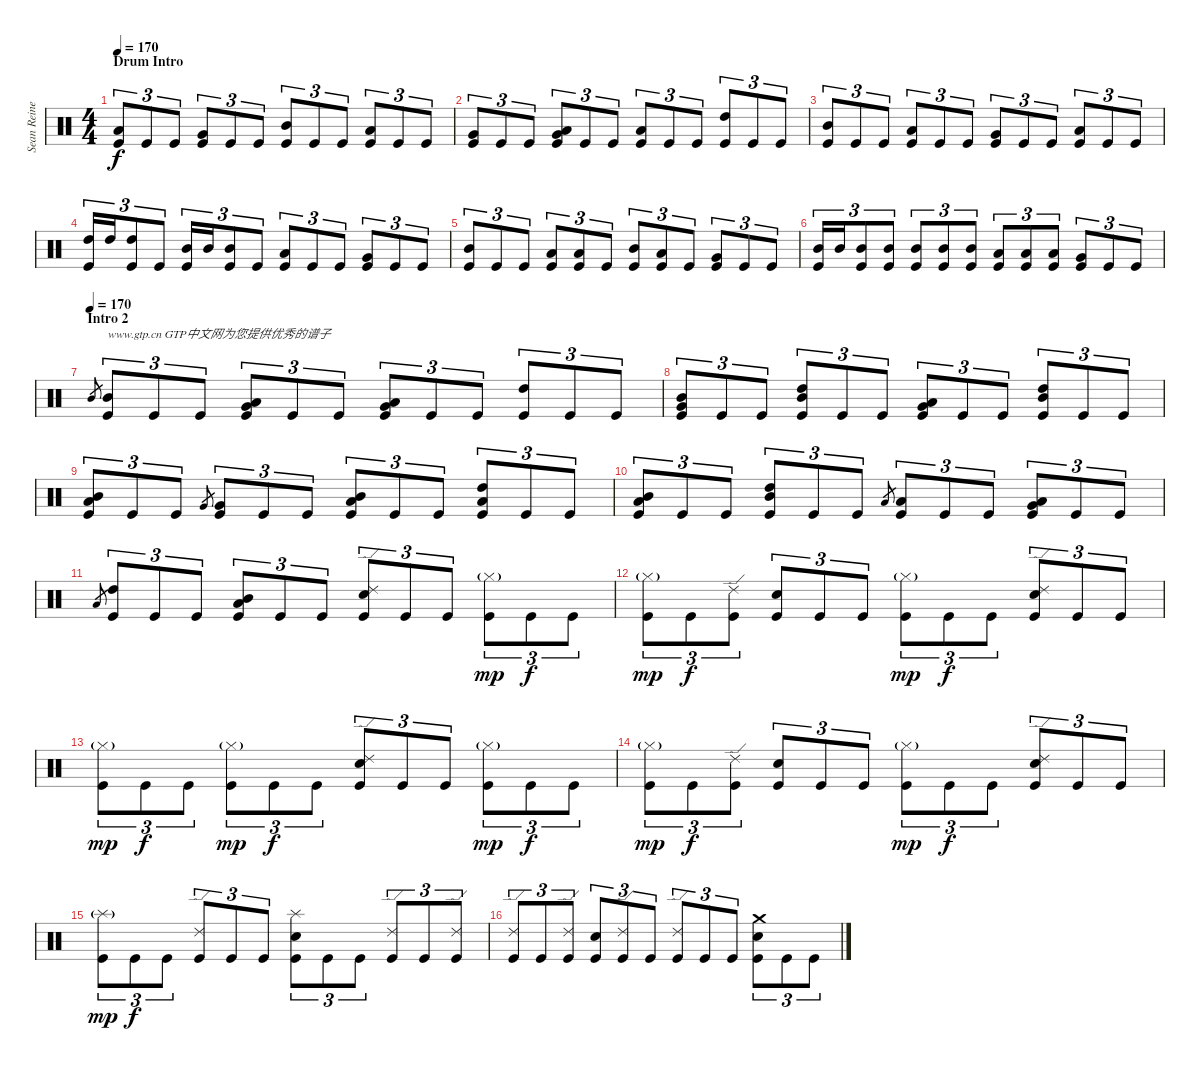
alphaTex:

\track ("Sean Reinert " "Sean Reine") {instrument percussion}
\staff {score}
\articulation defaults
\ts (4 4)
\section ("" "Drum Intro")
\tempo 170
\clef neutral
\ks c
("Low Tom (hit)" "Kick (hit)").8{tu (3 2) dy f volume 0} "Kick (hit)".8{tu (3 2) volume 16} "Kick (hit)".8{tu (3 2)} ("Very Low Tom (hit)" "Kick (hit)").8{tu (3 2)} "Kick (hit)".8{tu (3 2)} "Kick (hit)".8{tu (3 2)} ("Mid Tom (hit)" "Kick (hit)").8{tu (3 2)} "Kick (hit)".8{tu (3 2)} "Kick (hit)".8{tu (3 2)} ("Low Tom (hit)" "Kick (hit)").8{tu (3 2)} "Kick (hit)".8{tu (3 2)} "Kick (hit)".8{tu (3 2)} |
("Very Low Tom (hit)" "Kick (hit)").8{tu (3 2)} "Kick (hit)".8{tu (3 2)} "Kick (hit)".8{tu (3 2)} ("Low Floor Tom (hit)" "Very Low Tom (hit)" "Kick (hit)").8{tu (3 2)} "Kick (hit)".8{tu (3 2)} "Kick (hit)".8{tu (3 2)} ("Low Tom (hit)" "Kick (hit)").8{tu (3 2)} "Kick (hit)".8{tu (3 2)} "Kick (hit)".8{tu (3 2)} ("High Tom (hit)" "Kick (hit)").8{tu (3 2)} "Kick (hit)".8{tu (3 2)} "Kick (hit)".8{tu (3 2)} |
("Mid Tom (hit)" "Kick (hit)").8{tu (3 2)} "Kick (hit)".8{tu (3 2)} "Kick (hit)".8{tu (3 2)} ("Low Tom (hit)" "Kick (hit)").8{tu (3 2)} "Kick (hit)".8{tu (3 2)} "Kick (hit)".8{tu (3 2)} ("Very Low Tom (hit)" "Kick (hit)").8{tu (3 2)} "Kick (hit)".8{tu (3 2)} "Kick (hit)".8{tu (3 2)} ("Low Tom (hit)" "Kick (hit)").8{tu (3 2)} "Kick (hit)".8{tu (3 2)} "Kick (hit)".8{tu (3 2)} |
("High Tom (hit)" "Kick (hit)").16{tu (3 2)} "High Tom (hit)".16{tu (3 2)} ("High Tom (hit)" "Kick (hit)").8{tu (3 2)} "Kick (hit)".8{tu (3 2)} ("Mid Tom (hit)" "Kick (hit)").16{tu (3 2)} "Mid Tom (hit)".16{tu (3 2)} ("Mid Tom (hit)" "Kick (hit)").8{tu (3 2)} "Kick (hit)".8{tu (3 2)} ("Low Tom (hit)" "Kick (hit)").8{tu (3 2)} "Kick (hit)".8{tu (3 2)} "Kick (hit)".8{tu (3 2)} ("Very Low Tom (hit)" "Kick (hit)").8{tu (3 2)} "Kick (hit)".8{tu (3 2)} "Kick (hit)".8{tu (3 2)} |
("Mid Tom (hit)" "Kick (hit)").8{tu (3 2)} "Kick (hit)".8{tu (3 2)} "Kick (hit)".8{tu (3 2)} ("Low Tom (hit)" "Kick (hit)").8{tu (3 2)} ("Low Tom (hit)" "Kick (hit)").8{tu (3 2)} "Kick (hit)".8{tu (3 2)} ("Mid Tom (hit)" "Kick (hit)").8{tu (3 2)} ("Low Tom (hit)" "Kick (hit)").8{tu (3 2)} "Kick (hit)".8{tu (3 2)} ("Very Low Tom (hit)" "Kick (hit)").8{tu (3 2)} "Kick (hit)".8{tu (3 2)} "Kick (hit)".8{tu (3 2)} |
("Mid Tom (hit)" "Kick (hit)").16{tu (3 2)} "Mid Tom (hit)".16{tu (3 2)} ("Mid Tom (hit)" "Kick (hit)").8{tu (3 2)} ("Mid Tom (hit)" "Kick (hit)").8{tu (3 2)} ("Mid Tom (hit)" "Kick (hit)").8{tu (3 2)} ("Mid Tom (hit)" "Kick (hit)").8{tu (3 2)} ("Mid Tom (hit)" "Kick (hit)").8{tu (3 2)} ("Low Tom (hit)" "Kick (hit)").8{tu (3 2)} ("Low Tom (hit)" "Kick (hit)").8{tu (3 2)} ("Low Tom (hit)" "Kick (hit)").8{tu (3 2)} ("Very Low Tom (hit)" "Kick (hit)").8{tu (3 2)} "Kick (hit)".8{tu (3 2)} "Kick (hit)".8{tu (3 2)} |
\section ("" "Intro 2")
\tempo (170)
"Mid Tom (hit)".8{gr} ("Mid Tom (hit)" "Kick (hit)").8{tu (3 2) txt "www.gtp.cn GTP中文网为您提供优秀的谱子"} "Kick (hit)".8{tu (3 2)} "Kick (hit)".8{tu (3 2)} ("Very Low Tom (hit)" "Low Tom (hit)" "Kick (hit)").8{tu (3 2)} "Kick (hit)".8{tu (3 2)} "Kick (hit)".8{tu (3 2)} ("Very Low Tom (hit)" "Low Tom (hit)" "Kick (hit)").8{tu (3 2)} "Kick (hit)".8{tu (3 2)} "Kick (hit)".8{tu (3 2)} ("High Tom (hit)" "Kick (hit)").8{tu (3 2)} "Kick (hit)".8{tu (3 2)} "Kick (hit)".8{tu (3 2)} |
("Mid Tom (hit)" "Very Low Tom (hit)" "Kick (hit)").8{tu (3 2)} "Kick (hit)".8{tu (3 2)} "Kick (hit)".8{tu (3 2)} ("High Tom (hit)" "Mid Tom (hit)" "Kick (hit)").8{tu (3 2)} "Kick (hit)".8{tu (3 2)} "Kick (hit)".8{tu (3 2)} ("Very Low Tom (hit)" "Low Tom (hit)" "Kick (hit)").8{tu (3 2)} "Kick (hit)".8{tu (3 2)} "Kick (hit)".8{tu (3 2)} ("Mid Tom (hit)" "High Tom (hit)" "Kick (hit)").8{tu (3 2)} "Kick (hit)".8{tu (3 2)} "Kick (hit)".8{tu (3 2)} |
("Mid Tom (hit)" "Low Tom (hit)" "Kick (hit)").8{tu (3 2)} "Kick (hit)".8{tu (3 2)} "Kick (hit)".8{tu (3 2)} "Very Low Tom (hit)".8{gr} ("Very Low Tom (hit)" "Kick (hit)").8{tu (3 2)} "Kick (hit)".8{tu (3 2)} "Kick (hit)".8{tu (3 2)} ("Low Tom (hit)" "Mid Tom (hit)" "Kick (hit)").8{tu (3 2)} "Kick (hit)".8{tu (3 2)} "Kick (hit)".8{tu (3 2)} ("High Tom (hit)" "Low Tom (hit)" "Kick (hit)").8{tu (3 2)} "Kick (hit)".8{tu (3 2)} "Kick (hit)".8{tu (3 2)} |
("Mid Tom (hit)" "Low Tom (hit)" "Kick (hit)").8{tu (3 2)} "Kick (hit)".8{tu (3 2)} "Kick (hit)".8{tu (3 2)} ("High Tom (hit)" "Mid Tom (hit)" "Kick (hit)").8{tu (3 2)} "Kick (hit)".8{tu (3 2)} "Kick (hit)".8{tu (3 2)} "Low Tom (hit)".8{gr} ("Low Tom (hit)" "Kick (hit)").8{tu (3 2)} "Kick (hit)".8{tu (3 2)} "Kick (hit)".8{tu (3 2)} ("Low Tom (hit)" "Very Low Tom (hit)" "Kick (hit)").8{tu (3 2)} "Kick (hit)".8{tu (3 2)} "Kick (hit)".8{tu (3 2)} |
"Low Tom (hit)".8{gr} ("High Tom (hit)" "Kick (hit)").8{tu (3 2)} "Kick (hit)".8{tu (3 2)} "Kick (hit)".8{tu (3 2)} ("Low Tom (hit)" "Mid Tom (hit)" "Kick (hit)").8{tu (3 2)} "Kick (hit)".8{tu (3 2)} "Kick (hit)".8{tu (3 2)} ("Ride (edge) 2" "Electric Snare (hit)" "Kick (hit)").8{tu (3 2)} "Kick (hit)".8{tu (3 2)} "Kick (hit)".8{tu (3 2)} ("Hi-Hat (closed)"{g} "Kick (hit)").8{tu (3 2) dy mp} "Kick (hit)".8{tu (3 2) dy f} "Kick (hit)".8{tu (3 2)} |
("Hi-Hat (closed)"{g} "Kick (hit)").8{tu (3 2) dy mp} "Kick (hit)".8{tu (3 2) dy f} ("Ride (edge) 2" "Kick (hit)").8{tu (3 2)} ("Electric Snare (hit)" "Kick (hit)").8{tu (3 2)} "Kick (hit)".8{tu (3 2)} "Kick (hit)".8{tu (3 2)} ("Hi-Hat (closed)"{g} "Kick (hit)").8{tu (3 2) dy mp} "Kick (hit)".8{tu (3 2) dy f} "Kick (hit)".8{tu (3 2)} ("Ride (edge) 2" "Electric Snare (hit)" "Kick (hit)").8{tu (3 2)} "Kick (hit)".8{tu (3 2)} "Kick (hit)".8{tu (3 2)} |
("Hi-Hat (closed)"{g} "Kick (hit)").8{tu (3 2) dy mp} "Kick (hit)".8{tu (3 2) dy f} "Kick (hit)".8{tu (3 2)} ("Hi-Hat (closed)"{g} "Kick (hit)").8{tu (3 2) dy mp} "Kick (hit)".8{tu (3 2) dy f} "Kick (hit)".8{tu (3 2)} ("Ride (edge) 2" "Electric Snare (hit)" "Kick (hit)").8{tu (3 2)} "Kick (hit)".8{tu (3 2)} "Kick (hit)".8{tu (3 2)} ("Hi-Hat (closed)"{g} "Kick (hit)").8{tu (3 2) dy mp} "Kick (hit)".8{tu (3 2) dy f} "Kick (hit)".8{tu (3 2)} |
("Hi-Hat (closed)"{g} "Kick (hit)").8{tu (3 2) dy mp} "Kick (hit)".8{tu (3 2) dy f} ("Ride (edge) 2" "Kick (hit)").8{tu (3 2)} ("Electric Snare (hit)" "Kick (hit)").8{tu (3 2)} "Kick (hit)".8{tu (3 2)} "Kick (hit)".8{tu (3 2)} ("Hi-Hat (closed)"{g} "Kick (hit)").8{tu (3 2) dy mp} "Kick (hit)".8{tu (3 2) dy f} "Kick (hit)".8{tu (3 2)} ("Ride (edge) 2" "Electric Snare (hit)" "Kick (hit)").8{tu (3 2)} "Kick (hit)".8{tu (3 2)} "Kick (hit)".8{tu (3 2)} |
("Splash (hit)"{g} "Kick (hit)").8{tu (3 2) dy mp} "Kick (hit)".8{tu (3 2) dy f} "Kick (hit)".8{tu (3 2)} ("Ride (edge) 2" "Kick (hit)").8{tu (3 2)} "Kick (hit)".8{tu (3 2)} "Kick (hit)".8{tu (3 2)} ("Splash (hit)" "Electric Snare (hit)" "Kick (hit)").8{tu (3 2)} "Kick (hit)".8{tu (3 2)} "Kick (hit)".8{tu (3 2)} ("Ride (edge) 2" "Kick (hit)").8{tu (3 2)} "Kick (hit)".8{tu (3 2)} ("Ride (edge) 2" "Kick (hit)").8{tu (3 2)} |
("Ride (edge) 2" "Kick (hit)").8{tu (3 2)} "Kick (hit)".8{tu (3 2)} ("Ride (edge) 2" "Kick (hit)").8{tu (3 2)} ("Electric Snare (hit)" "Kick (hit)").8{tu (3 2)} ("Ride (edge) 2" "Kick (hit)").8{tu (3 2)} "Kick (hit)".8{tu (3 2)} ("Ride (edge) 2" "Kick (hit)").8{tu (3 2)} "Kick (hit)".8{tu (3 2)} "Kick (hit)".8{tu (3 2)} ("Crash medium (hit)" "Electric Snare (hit)" "Kick (hit)").8{tu (3 2)} "Kick (hit)".8{tu (3 2)} "Kick (hit)".8{tu (3 2)}
